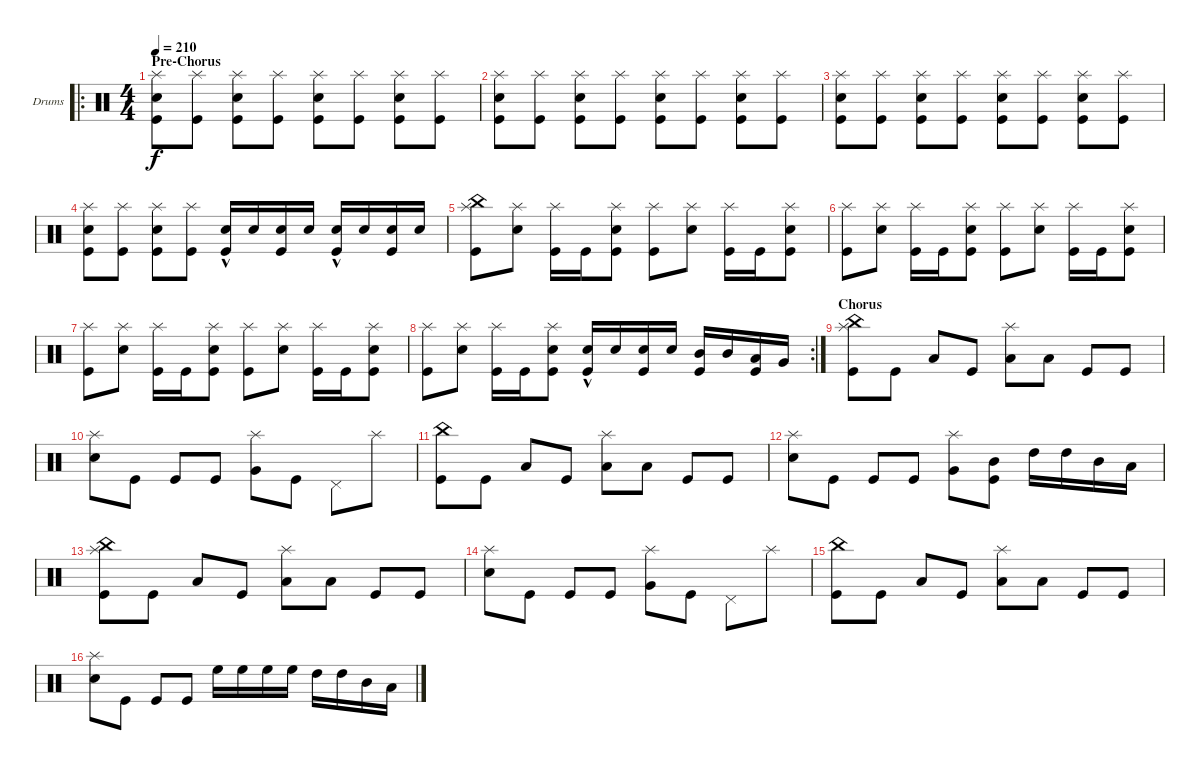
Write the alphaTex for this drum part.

\defaultSystemsLayout 4
\bracketExtendMode groupsimilarinstruments
\firstSystemTrackNameOrientation horizontal
\otherSystemsTrackNameOrientation horizontal
\track ("Drumkit" "Drums") {instrument percussion}
\staff {score}
\articulation defaults
\ro
\ts (4 4)
\section ("" "Pre-Chorus")
\tempo 210
\clef neutral
\ks c
("Splash (hit)" "Snare (hit) 2" "Kick (hit)").8{dy f} ("Splash (hit)" "Kick (hit)").8 ("Splash (hit)" "Snare (hit) 2" "Kick (hit)").8 ("Splash (hit)" "Kick (hit)").8 ("Splash (hit)" "Snare (hit) 2" "Kick (hit)").8 ("Splash (hit)" "Kick (hit)").8 ("Splash (hit)" "Snare (hit) 2" "Kick (hit)").8 ("Splash (hit)" "Kick (hit)").8 |
("Splash (hit)" "Snare (hit) 2" "Kick (hit)").8 ("Splash (hit)" "Kick (hit)").8 ("Splash (hit)" "Snare (hit) 2" "Kick (hit)").8 ("Splash (hit)" "Kick (hit)").8 ("Splash (hit)" "Snare (hit) 2" "Kick (hit)").8 ("Splash (hit)" "Kick (hit)").8 ("Splash (hit)" "Snare (hit) 2" "Kick (hit)").8 ("Splash (hit)" "Kick (hit)").8 |
("Splash (hit)" "Snare (hit) 2" "Kick (hit)").8 ("Splash (hit)" "Kick (hit)").8 ("Splash (hit)" "Snare (hit) 2" "Kick (hit)").8 ("Splash (hit)" "Kick (hit)").8 ("Splash (hit)" "Snare (hit) 2" "Kick (hit)").8 ("Splash (hit)" "Kick (hit)").8 ("Splash (hit)" "Snare (hit) 2" "Kick (hit)").8 ("Splash (hit)" "Kick (hit)").8 |
("Splash (hit)" "Snare (hit) 2" "Kick (hit)").8 ("Splash (hit)" "Kick (hit)").8 ("Splash (hit)" "Snare (hit) 2" "Kick (hit)").8 ("Splash (hit)" "Kick (hit)").8 ("Kick (hit)" "Snare (hit) 2"{hac}).16 "Snare (hit) 2".16 ("Snare (hit) 2" "Kick (hit)").16 "Snare (hit) 2".16 ("Kick (hit)" "Snare (hit) 2"{hac}).16 "Snare (hit) 2".16 ("Snare (hit) 2" "Kick (hit)").16 "Snare (hit) 2".16 |
("Splash (hit)" "Kick (hit)" "China (hit)").8 ("Splash (hit)" "Snare (hit) 2").8 ("Splash (hit)" "Kick (hit)").16 "Kick (hit)".16 ("Splash (hit)" "Kick (hit)" "Snare (hit) 2").8 ("Splash (hit)" "Kick (hit)").8 ("Splash (hit)" "Snare (hit) 2").8 ("Splash (hit)" "Kick (hit)").16 "Kick (hit)".16 ("Splash (hit)" "Kick (hit)" "Snare (hit) 2").8 |
("Splash (hit)" "Kick (hit)").8 ("Splash (hit)" "Snare (hit) 2").8 ("Splash (hit)" "Kick (hit)").16 "Kick (hit)".16 ("Splash (hit)" "Kick (hit)" "Snare (hit) 2").8 ("Splash (hit)" "Kick (hit)").8 ("Splash (hit)" "Snare (hit) 2").8 ("Splash (hit)" "Kick (hit)").16 "Kick (hit)".16 ("Splash (hit)" "Kick (hit)" "Snare (hit) 2").8 |
("Splash (hit)" "Kick (hit)").8 ("Splash (hit)" "Snare (hit) 2").8 ("Splash (hit)" "Kick (hit)").16 "Kick (hit)".16 ("Splash (hit)" "Kick (hit)" "Snare (hit) 2").8 ("Splash (hit)" "Kick (hit)").8 ("Splash (hit)" "Snare (hit) 2").8 ("Splash (hit)" "Kick (hit)").16 "Kick (hit)".16 ("Splash (hit)" "Kick (hit)" "Snare (hit) 2").8 |
\rc 2
("Splash (hit)" "Kick (hit)").8 ("Splash (hit)" "Snare (hit) 2").8 ("Splash (hit)" "Kick (hit)").16 "Kick (hit)".16 ("Splash (hit)" "Kick (hit)" "Snare (hit) 2").8 ("Kick (hit)" "Snare (hit) 2"{hac}).16 "Snare (hit) 2".16 ("Snare (hit) 2" "Kick (hit)").16 "Snare (hit) 2".16 ("Kick (hit)" "Mid Tom (hit)").16 "Mid Tom (hit)".16 ("Kick (hit)" "Low Tom (hit)").16 "Very Low Tom (hit)".16 |
\section ("" "Chorus")
("Kick (hit)" "Splash (hit)" "China (hit)").8 "Kick (hit)".8 "Low Tom (hit)".8 "Kick (hit)".8 ("Splash (hit)" "Low Tom (hit)").8 "Low Tom (hit)".8 "Kick (hit)".8 "Kick (hit)".8 |
("Snare (hit) 2" "Splash (hit)").8 "Kick (hit)".8 "Kick (hit)".8 "Kick (hit)".8 ("Splash (hit)" "Very Low Tom (hit)").8 "Kick (hit)".8 "Pedal Hi-Hat (hit)".8 "Splash (hit)".8 |
("China (hit)" "Kick (hit)").8 "Kick (hit)".8 "Low Tom (hit)".8 "Kick (hit)".8 ("Splash (hit)" "Low Tom (hit)").8 "Low Tom (hit)".8 "Kick (hit)".8 "Kick (hit)".8 |
("Splash (hit)" "Snare (hit) 2").8 "Kick (hit)".8 "Kick (hit)".8 "Kick (hit)".8 ("Splash (hit)" "Very Low Tom (hit)").8 ("Kick (hit)" "Mid Tom (hit)").8 "High Tom (hit)".16 "High Tom (hit)".16 "Mid Tom (hit)".16 "Low Tom (hit)".16 |
("Kick (hit)" "Splash (hit)" "China (hit)").8 "Kick (hit)".8 "Low Tom (hit)".8 "Kick (hit)".8 ("Splash (hit)" "Low Tom (hit)").8 "Low Tom (hit)".8 "Kick (hit)".8 "Kick (hit)".8 |
("Snare (hit) 2" "Splash (hit)").8 "Kick (hit)".8 "Kick (hit)".8 "Kick (hit)".8 ("Splash (hit)" "Very Low Tom (hit)").8 "Kick (hit)".8 "Pedal Hi-Hat (hit)".8 "Splash (hit)".8 |
("China (hit)" "Kick (hit)").8 "Kick (hit)".8 "Low Tom (hit)".8 "Kick (hit)".8 ("Splash (hit)" "Low Tom (hit)").8 "Low Tom (hit)".8 "Kick (hit)".8 "Kick (hit)".8 |
("Splash (hit)" "Snare (hit) 2").8 "Kick (hit)".8 "Kick (hit)".8 "Kick (hit)".8 "High Floor Tom (hit)".16 "High Floor Tom (hit)".16 "High Floor Tom (hit)".16 "High Floor Tom (hit)".16 "High Tom (hit)".16 "High Tom (hit)".16 "Mid Tom (hit)".16 "Low Tom (hit)".16
